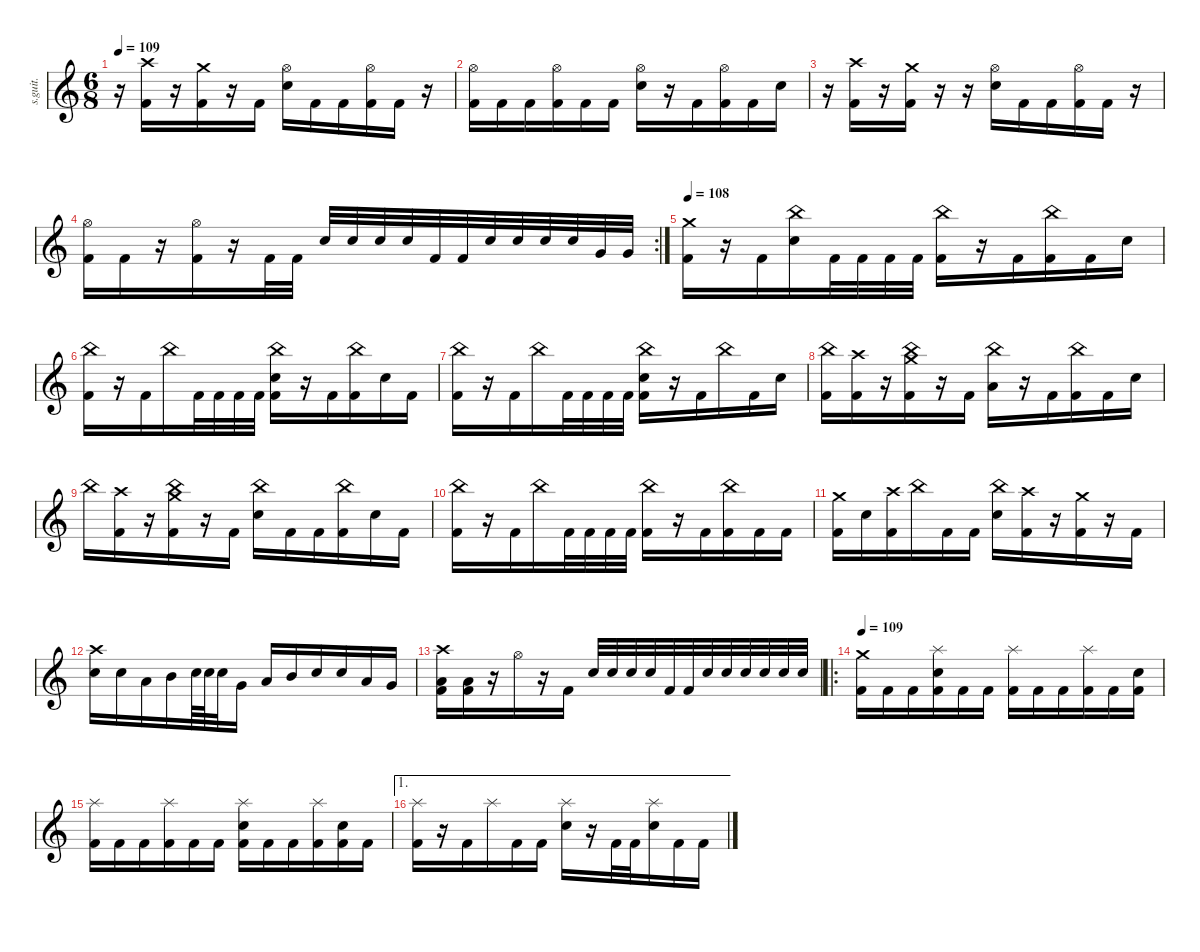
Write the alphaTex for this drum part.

\defaultSystemsLayout 4
\hideDynamics
\bracketExtendMode nobrackets
\track ("Drumkit" "s.guit.") {instrument percussion}
\staff {score}
\articulation defaults
\ts (6 8)
\tempo 109
\clef g2
\ks c
r.16{dy f} ("Crash high (hit)" "Kick (hit) 2").16{lyrics (0 "") lyrics (1 "") lyrics (2 "") lyrics (3 "") lyrics (4 "")} r.16 ("Crash medium (hit)" "Kick (hit) 2").16{lyrics (0 "") lyrics (1 "") lyrics (2 "") lyrics (3 "") lyrics (4 "")} r.16 "Kick (hit) 2".16{lyrics (0 "") lyrics (1 "") lyrics (2 "") lyrics (3 "") lyrics (4 "")} ("Hi-Hat (open)" "Electric Snare (hit)").16{lyrics (0 "") lyrics (1 "") lyrics (2 "") lyrics (3 "") lyrics (4 "")} "Kick (hit) 2".16{lyrics (0 "") lyrics (1 "") lyrics (2 "") lyrics (3 "") lyrics (4 "")} "Kick (hit) 2".16{lyrics (0 "") lyrics (1 "") lyrics (2 "") lyrics (3 "") lyrics (4 "")} ("Hi-Hat (open)" "Kick (hit) 2").16{lyrics (0 "") lyrics (1 "") lyrics (2 "") lyrics (3 "") lyrics (4 "")} "Kick (hit) 2".16{lyrics (0 "") lyrics (1 "") lyrics (2 "") lyrics (3 "") lyrics (4 "")} r.16 |
("Hi-Hat (open)" "Kick (hit) 2").16{lyrics (0 "") lyrics (1 "") lyrics (2 "") lyrics (3 "") lyrics (4 "")} "Kick (hit) 2".16{lyrics (0 "") lyrics (1 "") lyrics (2 "") lyrics (3 "") lyrics (4 "")} "Kick (hit) 2".16{lyrics (0 "") lyrics (1 "") lyrics (2 "") lyrics (3 "") lyrics (4 "")} ("Hi-Hat (open)" "Kick (hit) 2").16{lyrics (0 "") lyrics (1 "") lyrics (2 "") lyrics (3 "") lyrics (4 "")} "Kick (hit) 2".16{lyrics (0 "") lyrics (1 "") lyrics (2 "") lyrics (3 "") lyrics (4 "")} "Kick (hit) 2".16{lyrics (0 "") lyrics (1 "") lyrics (2 "") lyrics (3 "") lyrics (4 "")} ("Hi-Hat (open)" "Electric Snare (hit)").16{lyrics (0 "") lyrics (1 "") lyrics (2 "") lyrics (3 "") lyrics (4 "")} r.16 "Kick (hit) 2".16{lyrics (0 "") lyrics (1 "") lyrics (2 "") lyrics (3 "") lyrics (4 "")} ("Hi-Hat (open)" "Kick (hit) 2").16{lyrics (0 "") lyrics (1 "") lyrics (2 "") lyrics (3 "") lyrics (4 "")} "Kick (hit) 2".16{lyrics (0 "") lyrics (1 "") lyrics (2 "") lyrics (3 "") lyrics (4 "")} "Electric Snare (hit)".16{lyrics (0 "") lyrics (1 "") lyrics (2 "") lyrics (3 "") lyrics (4 "")} |
r.16 ("Crash high (hit)" "Kick (hit) 2").16{lyrics (0 "") lyrics (1 "") lyrics (2 "") lyrics (3 "") lyrics (4 "")} r.16 ("Crash medium (hit)" "Kick (hit) 2").16{lyrics (0 "") lyrics (1 "") lyrics (2 "") lyrics (3 "") lyrics (4 "")} r.16 r.16 ("Hi-Hat (open)" "Electric Snare (hit)").16{lyrics (0 "") lyrics (1 "") lyrics (2 "") lyrics (3 "") lyrics (4 "")} "Kick (hit) 2".16{lyrics (0 "") lyrics (1 "") lyrics (2 "") lyrics (3 "") lyrics (4 "")} "Kick (hit) 2".16{lyrics (0 "") lyrics (1 "") lyrics (2 "") lyrics (3 "") lyrics (4 "")} ("Hi-Hat (open)" "Kick (hit) 2").16{lyrics (0 "") lyrics (1 "") lyrics (2 "") lyrics (3 "") lyrics (4 "")} "Kick (hit) 2".16{lyrics (0 "") lyrics (1 "") lyrics (2 "") lyrics (3 "") lyrics (4 "")} r.16 |
\rc 2
("Hi-Hat (open)" "Kick (hit) 2").16{lyrics (0 "") lyrics (1 "") lyrics (2 "") lyrics (3 "") lyrics (4 "")} "Kick (hit) 2".16{lyrics (0 "") lyrics (1 "") lyrics (2 "") lyrics (3 "") lyrics (4 "")} r.16 ("Hi-Hat (open)" "Kick (hit) 2").16{lyrics (0 "") lyrics (1 "") lyrics (2 "") lyrics (3 "") lyrics (4 "")} r.16 "Kick (hit) 2".32{lyrics (0 "") lyrics (1 "") lyrics (2 "") lyrics (3 "") lyrics (4 "")} "Kick (hit) 2".32{lyrics (0 "") lyrics (1 "") lyrics (2 "") lyrics (3 "") lyrics (4 "")} "Electric Snare (hit)".32{lyrics (0 "") lyrics (1 "") lyrics (2 "") lyrics (3 "") lyrics (4 "")} "Electric Snare (hit)".32{lyrics (0 "") lyrics (1 "") lyrics (2 "") lyrics (3 "") lyrics (4 "")} "Electric Snare (hit)".32{lyrics (0 "") lyrics (1 "") lyrics (2 "") lyrics (3 "") lyrics (4 "")} "Electric Snare (hit)".32{lyrics (0 "") lyrics (1 "") lyrics (2 "") lyrics (3 "") lyrics (4 "")} "Kick (hit) 2".32{lyrics (0 "") lyrics (1 "") lyrics (2 "") lyrics (3 "") lyrics (4 "")} "Kick (hit) 2".32{lyrics (0 "") lyrics (1 "") lyrics (2 "") lyrics (3 "") lyrics (4 "")} "Electric Snare (hit)".32{lyrics (0 "") lyrics (1 "") lyrics (2 "") lyrics (3 "") lyrics (4 "")} "Electric Snare (hit)".32{lyrics (0 "") lyrics (1 "") lyrics (2 "") lyrics (3 "") lyrics (4 "")} "Electric Snare (hit)".32{lyrics (0 "") lyrics (1 "") lyrics (2 "") lyrics (3 "") lyrics (4 "")} "Electric Snare (hit)".32{lyrics (0 "") lyrics (1 "") lyrics (2 "") lyrics (3 "") lyrics (4 "")} "Very Low Tom (hit)".32{lyrics (0 "") lyrics (1 "") lyrics (2 "") lyrics (3 "") lyrics (4 "")} "Very Low Tom (hit)".32{lyrics (0 "") lyrics (1 "") lyrics (2 "") lyrics (3 "") lyrics (4 "")} |
\tempo 108
("Crash medium (hit)" "Kick (hit) 2").16{lyrics (0 "") lyrics (1 "") lyrics (2 "") lyrics (3 "") lyrics (4 "")} r.16 "Kick (hit) 2".16{lyrics (0 "") lyrics (1 "") lyrics (2 "") lyrics (3 "") lyrics (4 "")} ("China (hit)" "Electric Snare (hit)").16{lyrics (0 "") lyrics (1 "") lyrics (2 "") lyrics (3 "") lyrics (4 "")} "Kick (hit) 2".32{lyrics (0 "") lyrics (1 "") lyrics (2 "") lyrics (3 "") lyrics (4 "")} "Kick (hit) 2".32{lyrics (0 "") lyrics (1 "") lyrics (2 "") lyrics (3 "") lyrics (4 "")} "Kick (hit) 2".32{lyrics (0 "") lyrics (1 "") lyrics (2 "") lyrics (3 "") lyrics (4 "")} "Kick (hit) 2".32{lyrics (0 "") lyrics (1 "") lyrics (2 "") lyrics (3 "") lyrics (4 "")} ("China (hit)" "Kick (hit) 2").16{lyrics (0 "") lyrics (1 "") lyrics (2 "") lyrics (3 "") lyrics (4 "")} r.16 "Kick (hit) 2".16{lyrics (0 "") lyrics (1 "") lyrics (2 "") lyrics (3 "") lyrics (4 "")} ("China (hit)" "Kick (hit) 2").16{lyrics (0 "") lyrics (1 "") lyrics (2 "") lyrics (3 "") lyrics (4 "")} "Kick (hit) 2".16{lyrics (0 "") lyrics (1 "") lyrics (2 "") lyrics (3 "") lyrics (4 "")} "Electric Snare (hit)".16{lyrics (0 "") lyrics (1 "") lyrics (2 "") lyrics (3 "") lyrics (4 "")} |
("China (hit)" "Kick (hit) 2").16{lyrics (0 "") lyrics (1 "") lyrics (2 "") lyrics (3 "") lyrics (4 "")} r.16 "Kick (hit) 2".16{lyrics (0 "") lyrics (1 "") lyrics (2 "") lyrics (3 "") lyrics (4 "")} "China (hit)".16{lyrics (0 "") lyrics (1 "") lyrics (2 "") lyrics (3 "") lyrics (4 "")} "Kick (hit) 2".32{lyrics (0 "") lyrics (1 "") lyrics (2 "") lyrics (3 "") lyrics (4 "")} "Kick (hit) 2".32{lyrics (0 "") lyrics (1 "") lyrics (2 "") lyrics (3 "") lyrics (4 "")} "Kick (hit) 2".32{lyrics (0 "") lyrics (1 "") lyrics (2 "") lyrics (3 "") lyrics (4 "")} "Kick (hit) 2".32{lyrics (0 "") lyrics (1 "") lyrics (2 "") lyrics (3 "") lyrics (4 "")} ("China (hit)" "Electric Snare (hit)" "Kick (hit) 2").16{lyrics (0 "") lyrics (1 "") lyrics (2 "") lyrics (3 "") lyrics (4 "")} r.16 "Kick (hit) 2".16{lyrics (0 "") lyrics (1 "") lyrics (2 "") lyrics (3 "") lyrics (4 "")} ("China (hit)" "Kick (hit) 2").16{lyrics (0 "") lyrics (1 "") lyrics (2 "") lyrics (3 "") lyrics (4 "")} "Electric Snare (hit)".16{lyrics (0 "") lyrics (1 "") lyrics (2 "") lyrics (3 "") lyrics (4 "")} "Kick (hit) 2".16{lyrics (0 "") lyrics (1 "") lyrics (2 "") lyrics (3 "") lyrics (4 "")} |
("China (hit)" "Kick (hit) 2").16{lyrics (0 "") lyrics (1 "") lyrics (2 "") lyrics (3 "") lyrics (4 "")} r.16 "Kick (hit) 2".16{lyrics (0 "") lyrics (1 "") lyrics (2 "") lyrics (3 "") lyrics (4 "")} "China (hit)".16{lyrics (0 "") lyrics (1 "") lyrics (2 "") lyrics (3 "") lyrics (4 "")} "Kick (hit) 2".32{lyrics (0 "") lyrics (1 "") lyrics (2 "") lyrics (3 "") lyrics (4 "")} "Kick (hit) 2".32{lyrics (0 "") lyrics (1 "") lyrics (2 "") lyrics (3 "") lyrics (4 "")} "Kick (hit) 2".32{lyrics (0 "") lyrics (1 "") lyrics (2 "") lyrics (3 "") lyrics (4 "")} "Kick (hit) 2".32{lyrics (0 "") lyrics (1 "") lyrics (2 "") lyrics (3 "") lyrics (4 "")} ("China (hit)" "Electric Snare (hit)" "Kick (hit) 2").16{lyrics (0 "") lyrics (1 "") lyrics (2 "") lyrics (3 "") lyrics (4 "")} r.16 "Kick (hit) 2".16{lyrics (0 "") lyrics (1 "") lyrics (2 "") lyrics (3 "") lyrics (4 "")} "China (hit)".16{lyrics (0 "") lyrics (1 "") lyrics (2 "") lyrics (3 "") lyrics (4 "")} "Kick (hit) 2".16{lyrics (0 "") lyrics (1 "") lyrics (2 "") lyrics (3 "") lyrics (4 "")} "Electric Snare (hit)".16{lyrics (0 "") lyrics (1 "") lyrics (2 "") lyrics (3 "") lyrics (4 "")} |
("China (hit)" "Kick (hit) 2").16{lyrics (0 "") lyrics (1 "") lyrics (2 "") lyrics (3 "") lyrics (4 "")} ("Crash high (hit)" "Kick (hit) 2").16{lyrics (0 "") lyrics (1 "") lyrics (2 "") lyrics (3 "") lyrics (4 "")} r.16 ("Crash medium (hit)" "China (hit)" "Kick (hit) 2").16{lyrics (0 "") lyrics (1 "") lyrics (2 "") lyrics (3 "") lyrics (4 "")} r.16 "Kick (hit) 2".16{lyrics (0 "") lyrics (1 "") lyrics (2 "") lyrics (3 "") lyrics (4 "")} ("China (hit)" "Low Tom (hit)").16{lyrics (0 "") lyrics (1 "") lyrics (2 "") lyrics (3 "") lyrics (4 "")} r.16 "Kick (hit) 2".16{lyrics (0 "") lyrics (1 "") lyrics (2 "") lyrics (3 "") lyrics (4 "")} ("China (hit)" "Kick (hit) 2").16{lyrics (0 "") lyrics (1 "") lyrics (2 "") lyrics (3 "") lyrics (4 "")} "Kick (hit) 2".16{lyrics (0 "") lyrics (1 "") lyrics (2 "") lyrics (3 "") lyrics (4 "")} "Electric Snare (hit)".16{lyrics (0 "") lyrics (1 "") lyrics (2 "") lyrics (3 "") lyrics (4 "")} |
"China (hit)".16{lyrics (0 "") lyrics (1 "") lyrics (2 "") lyrics (3 "") lyrics (4 "")} ("Crash high (hit)" "Kick (hit) 2").16{lyrics (0 "") lyrics (1 "") lyrics (2 "") lyrics (3 "") lyrics (4 "")} r.16 ("Crash medium (hit)" "China (hit)" "Kick (hit) 2").16{lyrics (0 "") lyrics (1 "") lyrics (2 "") lyrics (3 "") lyrics (4 "")} r.16 "Kick (hit) 2".16{lyrics (0 "") lyrics (1 "") lyrics (2 "") lyrics (3 "") lyrics (4 "")} ("China (hit)" "Electric Snare (hit)").16{lyrics (0 "") lyrics (1 "") lyrics (2 "") lyrics (3 "") lyrics (4 "")} "Kick (hit) 2".16{lyrics (0 "") lyrics (1 "") lyrics (2 "") lyrics (3 "") lyrics (4 "")} "Kick (hit) 2".16{lyrics (0 "") lyrics (1 "") lyrics (2 "") lyrics (3 "") lyrics (4 "")} ("China (hit)" "Kick (hit) 2").16{lyrics (0 "") lyrics (1 "") lyrics (2 "") lyrics (3 "") lyrics (4 "")} "Electric Snare (hit)".16{lyrics (0 "") lyrics (1 "") lyrics (2 "") lyrics (3 "") lyrics (4 "")} "Kick (hit) 2".16{lyrics (0 "") lyrics (1 "") lyrics (2 "") lyrics (3 "") lyrics (4 "")} |
("China (hit)" "Kick (hit) 2").16{lyrics (0 "") lyrics (1 "") lyrics (2 "") lyrics (3 "") lyrics (4 "")} r.16 "Kick (hit) 2".16{lyrics (0 "") lyrics (1 "") lyrics (2 "") lyrics (3 "") lyrics (4 "")} "China (hit)".16{lyrics (0 "") lyrics (1 "") lyrics (2 "") lyrics (3 "") lyrics (4 "")} "Kick (hit) 2".32{lyrics (0 "") lyrics (1 "") lyrics (2 "") lyrics (3 "") lyrics (4 "")} "Kick (hit) 2".32{lyrics (0 "") lyrics (1 "") lyrics (2 "") lyrics (3 "") lyrics (4 "")} "Kick (hit) 2".32{lyrics (0 "") lyrics (1 "") lyrics (2 "") lyrics (3 "") lyrics (4 "")} "Kick (hit) 2".32{lyrics (0 "") lyrics (1 "") lyrics (2 "") lyrics (3 "") lyrics (4 "")} ("China (hit)" "Kick (hit) 2").16{lyrics (0 "") lyrics (1 "") lyrics (2 "") lyrics (3 "") lyrics (4 "")} r.16 "Kick (hit) 2".16{lyrics (0 "") lyrics (1 "") lyrics (2 "") lyrics (3 "") lyrics (4 "")} ("China (hit)" "Kick (hit) 2").16{lyrics (0 "") lyrics (1 "") lyrics (2 "") lyrics (3 "") lyrics (4 "")} "Kick (hit) 2".16{lyrics (0 "") lyrics (1 "") lyrics (2 "") lyrics (3 "") lyrics (4 "")} "Kick (hit) 2".16{lyrics (0 "") lyrics (1 "") lyrics (2 "") lyrics (3 "") lyrics (4 "")} |
("Crash medium (hit)" "Kick (hit) 2").16{lyrics (0 "") lyrics (1 "") lyrics (2 "") lyrics (3 "") lyrics (4 "")} "Electric Snare (hit)".16{lyrics (0 "") lyrics (1 "") lyrics (2 "") lyrics (3 "") lyrics (4 "")} ("Crash high (hit)" "Kick (hit) 2").16{lyrics (0 "") lyrics (1 "") lyrics (2 "") lyrics (3 "") lyrics (4 "")} "China (hit)".16{lyrics (0 "") lyrics (1 "") lyrics (2 "") lyrics (3 "") lyrics (4 "")} "Kick (hit) 2".16{lyrics (0 "") lyrics (1 "") lyrics (2 "") lyrics (3 "") lyrics (4 "")} "Kick (hit) 2".16{lyrics (0 "") lyrics (1 "") lyrics (2 "") lyrics (3 "") lyrics (4 "")} ("China (hit)" "Electric Snare (hit)").16{lyrics (0 "") lyrics (1 "") lyrics (2 "") lyrics (3 "") lyrics (4 "")} ("Crash high (hit)" "Kick (hit) 2").16{lyrics (0 "") lyrics (1 "") lyrics (2 "") lyrics (3 "") lyrics (4 "")} r.16 ("Crash medium (hit)" "Kick (hit) 2").16{lyrics (0 "") lyrics (1 "") lyrics (2 "") lyrics (3 "") lyrics (4 "")} r.16 "Kick (hit) 2".16{lyrics (0 "") lyrics (1 "") lyrics (2 "") lyrics (3 "") lyrics (4 "")} |
("Crash high (hit)" "Electric Snare (hit)").16{lyrics (0 "") lyrics (1 "") lyrics (2 "") lyrics (3 "") lyrics (4 "")} "Electric Snare (hit)".16{lyrics (0 "") lyrics (1 "") lyrics (2 "") lyrics (3 "") lyrics (4 "")} "Low Tom (hit)".16{lyrics (0 "") lyrics (1 "") lyrics (2 "") lyrics (3 "") lyrics (4 "")} "Mid Tom (hit)".16{lyrics (0 "") lyrics (1 "") lyrics (2 "") lyrics (3 "") lyrics (4 "")} "Electric Snare (hit)".64{lyrics (0 "") lyrics (1 "") lyrics (2 "") lyrics (3 "") lyrics (4 "")} "Electric Snare (hit)".64{lyrics (0 "") lyrics (1 "") lyrics (2 "") lyrics (3 "") lyrics (4 "")} "Electric Snare (hit)".32{lyrics (0 "") lyrics (1 "") lyrics (2 "") lyrics (3 "") lyrics (4 "")} "Very Low Tom (hit)".16{lyrics (0 "") lyrics (1 "") lyrics (2 "") lyrics (3 "") lyrics (4 "")} "Low Tom (hit)".16{lyrics (0 "") lyrics (1 "") lyrics (2 "") lyrics (3 "") lyrics (4 "")} "Mid Tom (hit)".16{lyrics (0 "") lyrics (1 "") lyrics (2 "") lyrics (3 "") lyrics (4 "")} "Electric Snare (hit)".16{lyrics (0 "") lyrics (1 "") lyrics (2 "") lyrics (3 "") lyrics (4 "")} "Electric Snare (hit)".16{lyrics (0 "") lyrics (1 "") lyrics (2 "") lyrics (3 "") lyrics (4 "")} "Low Tom (hit)".16{lyrics (0 "") lyrics (1 "") lyrics (2 "") lyrics (3 "") lyrics (4 "")} "Very Low Tom (hit)".16{lyrics (0 "") lyrics (1 "") lyrics (2 "") lyrics (3 "") lyrics (4 "")} |
("Crash high (hit)" "Low Floor Tom (hit)" "Kick (hit) 2").16{lyrics (0 "") lyrics (1 "") lyrics (2 "") lyrics (3 "") lyrics (4 "")} ("Low Floor Tom (hit)" "Kick (hit) 2").16{lyrics (0 "") lyrics (1 "") lyrics (2 "") lyrics (3 "") lyrics (4 "")} r.16 "Hi-Hat (open)".16{lyrics (0 "") lyrics (1 "") lyrics (2 "") lyrics (3 "") lyrics (4 "")} r.16 "Kick (hit) 2".16{lyrics (0 "") lyrics (1 "") lyrics (2 "") lyrics (3 "") lyrics (4 "")} "Electric Snare (hit)".32{lyrics (0 "") lyrics (1 "") lyrics (2 "") lyrics (3 "") lyrics (4 "")} "Electric Snare (hit)".32{lyrics (0 "") lyrics (1 "") lyrics (2 "") lyrics (3 "") lyrics (4 "")} "Electric Snare (hit)".32{lyrics (0 "") lyrics (1 "") lyrics (2 "") lyrics (3 "") lyrics (4 "")} "Electric Snare (hit)".32{lyrics (0 "") lyrics (1 "") lyrics (2 "") lyrics (3 "") lyrics (4 "")} "Kick (hit) 2".32{lyrics (0 "") lyrics (1 "") lyrics (2 "") lyrics (3 "") lyrics (4 "")} "Kick (hit) 2".32{lyrics (0 "") lyrics (1 "") lyrics (2 "") lyrics (3 "") lyrics (4 "")} "Electric Snare (hit)".32{lyrics (0 "") lyrics (1 "") lyrics (2 "") lyrics (3 "") lyrics (4 "")} "Electric Snare (hit)".32{lyrics (0 "") lyrics (1 "") lyrics (2 "") lyrics (3 "") lyrics (4 "")} "Electric Snare (hit)".32{lyrics (0 "") lyrics (1 "") lyrics (2 "") lyrics (3 "") lyrics (4 "")} "Electric Snare (hit)".32{lyrics (0 "") lyrics (1 "") lyrics (2 "") lyrics (3 "") lyrics (4 "")} "Electric Snare (hit)".32{lyrics (0 "") lyrics (1 "") lyrics (2 "") lyrics (3 "") lyrics (4 "")} "Electric Snare (hit)".32{lyrics (0 "") lyrics (1 "") lyrics (2 "") lyrics (3 "") lyrics (4 "")} |
\ro
\tempo 109
("Crash medium (hit)" "Kick (hit) 2").16{lyrics (0 "") lyrics (1 "") lyrics (2 "") lyrics (3 "") lyrics (4 "")} "Kick (hit) 2".16{lyrics (0 "") lyrics (1 "") lyrics (2 "") lyrics (3 "") lyrics (4 "")} "Kick (hit) 2".16{lyrics (0 "") lyrics (1 "") lyrics (2 "") lyrics (3 "") lyrics (4 "")} ("Splash (hit)" "Electric Snare (hit)" "Kick (hit) 2").16{lyrics (0 "") lyrics (1 "") lyrics (2 "") lyrics (3 "") lyrics (4 "")} "Kick (hit) 2".16{lyrics (0 "") lyrics (1 "") lyrics (2 "") lyrics (3 "") lyrics (4 "")} "Kick (hit) 2".16{lyrics (0 "") lyrics (1 "") lyrics (2 "") lyrics (3 "") lyrics (4 "")} ("Splash (hit)" "Kick (hit) 2").16{lyrics (0 "") lyrics (1 "") lyrics (2 "") lyrics (3 "") lyrics (4 "")} "Kick (hit) 2".16{lyrics (0 "") lyrics (1 "") lyrics (2 "") lyrics (3 "") lyrics (4 "")} "Kick (hit) 2".16{lyrics (0 "") lyrics (1 "") lyrics (2 "") lyrics (3 "") lyrics (4 "")} ("Splash (hit)" "Kick (hit) 2").16{lyrics (0 "") lyrics (1 "") lyrics (2 "") lyrics (3 "") lyrics (4 "")} "Kick (hit) 2".16{lyrics (0 "") lyrics (1 "") lyrics (2 "") lyrics (3 "") lyrics (4 "")} ("Electric Snare (hit)" "Kick (hit) 2").16{lyrics (0 "") lyrics (1 "") lyrics (2 "") lyrics (3 "") lyrics (4 "")} |
("Splash (hit)" "Kick (hit) 2").16{lyrics (0 "") lyrics (1 "") lyrics (2 "") lyrics (3 "") lyrics (4 "")} "Kick (hit) 2".16{lyrics (0 "") lyrics (1 "") lyrics (2 "") lyrics (3 "") lyrics (4 "")} "Kick (hit) 2".16{lyrics (0 "") lyrics (1 "") lyrics (2 "") lyrics (3 "") lyrics (4 "")} ("Splash (hit)" "Kick (hit) 2").16{lyrics (0 "") lyrics (1 "") lyrics (2 "") lyrics (3 "") lyrics (4 "")} "Kick (hit) 2".16{lyrics (0 "") lyrics (1 "") lyrics (2 "") lyrics (3 "") lyrics (4 "")} "Kick (hit) 2".16{lyrics (0 "") lyrics (1 "") lyrics (2 "") lyrics (3 "") lyrics (4 "")} ("Splash (hit)" "Electric Snare (hit)" "Kick (hit) 2").16{lyrics (0 "") lyrics (1 "") lyrics (2 "") lyrics (3 "") lyrics (4 "")} "Kick (hit) 2".16{lyrics (0 "") lyrics (1 "") lyrics (2 "") lyrics (3 "") lyrics (4 "")} "Kick (hit) 2".16{lyrics (0 "") lyrics (1 "") lyrics (2 "") lyrics (3 "") lyrics (4 "")} ("Splash (hit)" "Kick (hit) 2").16{lyrics (0 "") lyrics (1 "") lyrics (2 "") lyrics (3 "") lyrics (4 "")} ("Electric Snare (hit)" "Kick (hit) 2").16{lyrics (0 "") lyrics (1 "") lyrics (2 "") lyrics (3 "") lyrics (4 "")} "Kick (hit) 2".16{lyrics (0 "") lyrics (1 "") lyrics (2 "") lyrics (3 "") lyrics (4 "")} |
\ae 1
("Splash (hit)" "Kick (hit) 2").16{lyrics (0 "") lyrics (1 "") lyrics (2 "") lyrics (3 "") lyrics (4 "")} r.16 "Kick (hit) 2".16{lyrics (0 "") lyrics (1 "") lyrics (2 "") lyrics (3 "") lyrics (4 "")} "Splash (hit)".16{lyrics (0 "") lyrics (1 "") lyrics (2 "") lyrics (3 "") lyrics (4 "")} "Kick (hit) 2".16{lyrics (0 "") lyrics (1 "") lyrics (2 "") lyrics (3 "") lyrics (4 "")} "Kick (hit) 2".16{lyrics (0 "") lyrics (1 "") lyrics (2 "") lyrics (3 "") lyrics (4 "")} ("Splash (hit)" "Electric Snare (hit)").16{lyrics (0 "") lyrics (1 "") lyrics (2 "") lyrics (3 "") lyrics (4 "")} r.16 "Kick (hit) 2".32{lyrics (0 "") lyrics (1 "") lyrics (2 "") lyrics (3 "") lyrics (4 "")} "Kick (hit) 2".32{lyrics (0 "") lyrics (1 "") lyrics (2 "") lyrics (3 "") lyrics (4 "")} ("Splash (hit)" "Electric Snare (hit)").16{lyrics (0 "") lyrics (1 "") lyrics (2 "") lyrics (3 "") lyrics (4 "")} "Kick (hit) 2".16{lyrics (0 "") lyrics (1 "") lyrics (2 "") lyrics (3 "") lyrics (4 "")} "Kick (hit) 2".16{lyrics (0 "") lyrics (1 "") lyrics (2 "") lyrics (3 "") lyrics (4 "")}
